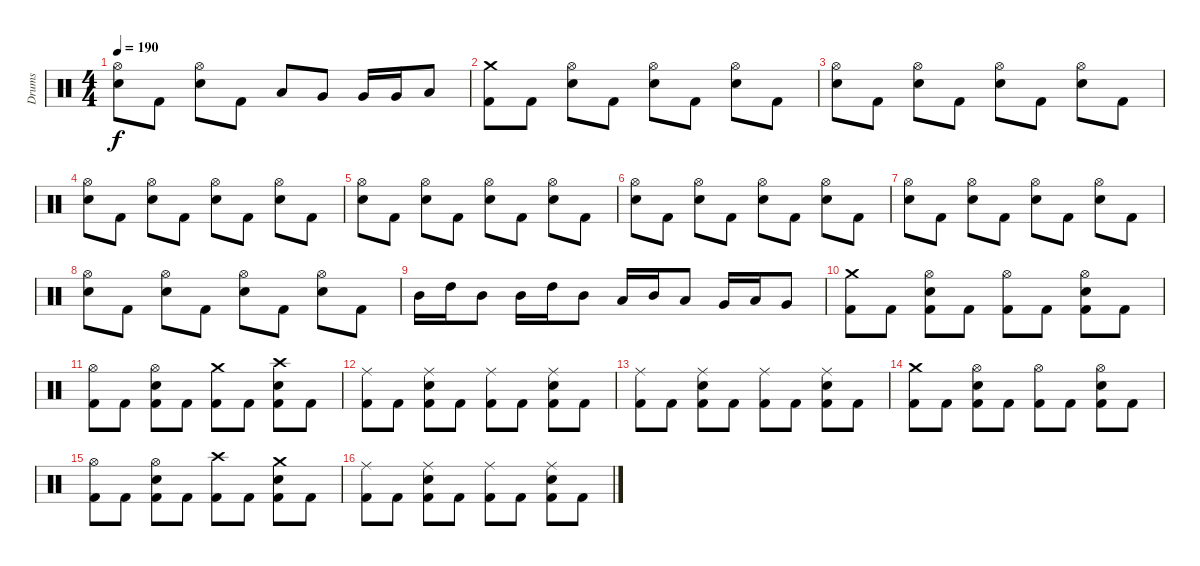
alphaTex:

\track ("Drums" "Drums") {instrument percussion}
\staff {score}
\articulation defaults
\ts (4 4)
\tempo 190
\clef neutral
\ks c
("Hi-Hat (open)" "Electric Snare (hit)").8{dy f} "Kick (hit) 2".8 ("Hi-Hat (open)" "Electric Snare (hit)").8 "Kick (hit) 2".8 "Low Tom (hit)".8 "Very Low Tom (hit)".8 "Very Low Tom (hit)".16 "Very Low Tom (hit)".16 "Low Floor Tom (hit)".8 |
("Crash medium (hit)" "Kick (hit) 2").8 "Kick (hit) 2".8 ("Hi-Hat (open)" "Electric Snare (hit)").8 "Kick (hit) 2".8 ("Hi-Hat (open)" "Electric Snare (hit)").8 "Kick (hit) 2".8 ("Hi-Hat (open)" "Electric Snare (hit)").8 "Kick (hit) 2".8 |
("Hi-Hat (open)" "Electric Snare (hit)").8 "Kick (hit) 2".8 ("Hi-Hat (open)" "Electric Snare (hit)").8 "Kick (hit) 2".8 ("Hi-Hat (open)" "Electric Snare (hit)").8 "Kick (hit) 2".8 ("Hi-Hat (open)" "Electric Snare (hit)").8 "Kick (hit) 2".8 |
("Hi-Hat (open)" "Electric Snare (hit)").8 "Kick (hit) 2".8 ("Hi-Hat (open)" "Electric Snare (hit)").8 "Kick (hit) 2".8 ("Hi-Hat (open)" "Electric Snare (hit)").8 "Kick (hit) 2".8 ("Hi-Hat (open)" "Electric Snare (hit)").8 "Kick (hit) 2".8 |
("Hi-Hat (open)" "Electric Snare (hit)").8 "Kick (hit) 2".8 ("Hi-Hat (open)" "Electric Snare (hit)").8 "Kick (hit) 2".8 ("Hi-Hat (open)" "Electric Snare (hit)").8 "Kick (hit) 2".8 ("Hi-Hat (open)" "Electric Snare (hit)").8 "Kick (hit) 2".8 |
("Hi-Hat (open)" "Electric Snare (hit)").8 "Kick (hit) 2".8 ("Hi-Hat (open)" "Electric Snare (hit)").8 "Kick (hit) 2".8 ("Hi-Hat (open)" "Electric Snare (hit)").8 "Kick (hit) 2".8 ("Hi-Hat (open)" "Electric Snare (hit)").8 "Kick (hit) 2".8 |
("Hi-Hat (open)" "Electric Snare (hit)").8 "Kick (hit) 2".8 ("Hi-Hat (open)" "Electric Snare (hit)").8 "Kick (hit) 2".8 ("Hi-Hat (open)" "Electric Snare (hit)").8 "Kick (hit) 2".8 ("Hi-Hat (open)" "Electric Snare (hit)").8 "Kick (hit) 2".8 |
("Hi-Hat (open)" "Electric Snare (hit)").8 "Kick (hit) 2".8 ("Hi-Hat (open)" "Electric Snare (hit)").8 "Kick (hit) 2".8 ("Hi-Hat (open)" "Electric Snare (hit)").8 "Kick (hit) 2".8 ("Hi-Hat (open)" "Electric Snare (hit)").8 "Kick (hit) 2".8 |
"Mid Tom (hit)".16 "High Tom (hit)".16 "Mid Tom (hit)".8 "Mid Tom (hit)".16 "High Tom (hit)".16 "Mid Tom (hit)".8 "Low Tom (hit)".16 "Mid Tom (hit)".16 "Low Tom (hit)".8 "Very Low Tom (hit)".16 "Low Tom (hit)".16 "Very Low Tom (hit)".8 |
("Crash medium (hit)" "Kick (hit) 2").8 "Kick (hit) 2".8 ("Hi-Hat (open)" "Electric Snare (hit)" "Kick (hit) 2").8 "Kick (hit) 2".8 ("Hi-Hat (open)" "Kick (hit) 2").8 "Kick (hit) 2".8 ("Hi-Hat (open)" "Electric Snare (hit)" "Kick (hit) 2").8 "Kick (hit) 2".8 |
("Hi-Hat (open)" "Kick (hit) 2").8 "Kick (hit) 2".8 ("Hi-Hat (open)" "Electric Snare (hit)" "Kick (hit) 2").8 "Kick (hit) 2".8 ("Crash medium (hit)" "Kick (hit) 2").8 "Kick (hit) 2".8 ("Crash high (hit)" "Electric Snare (hit)" "Kick (hit) 2").8 "Kick (hit) 2".8 |
("Ride (middle)" "Kick (hit) 2").8 "Kick (hit) 2".8 ("Ride (middle)" "Electric Snare (hit)" "Kick (hit) 2").8 "Kick (hit) 2".8 ("Ride (middle)" "Kick (hit) 2").8 "Kick (hit) 2".8 ("Ride (middle)" "Electric Snare (hit)" "Kick (hit) 2").8 "Kick (hit) 2".8 |
("Ride (middle)" "Kick (hit) 2").8 "Kick (hit) 2".8 ("Ride (middle)" "Electric Snare (hit)" "Kick (hit) 2").8 "Kick (hit) 2".8 ("Ride (middle)" "Kick (hit) 2").8 "Kick (hit) 2".8 ("Ride (middle)" "Electric Snare (hit)" "Kick (hit) 2").8 "Kick (hit) 2".8 |
("Crash medium (hit)" "Kick (hit) 2").8 "Kick (hit) 2".8 ("Hi-Hat (open)" "Electric Snare (hit)" "Kick (hit) 2").8 "Kick (hit) 2".8 ("Hi-Hat (open)" "Kick (hit) 2").8 "Kick (hit) 2".8 ("Hi-Hat (open)" "Electric Snare (hit)" "Kick (hit) 2").8 "Kick (hit) 2".8 |
("Hi-Hat (open)" "Kick (hit) 2").8 "Kick (hit) 2".8 ("Hi-Hat (open)" "Electric Snare (hit)" "Kick (hit) 2").8 "Kick (hit) 2".8 ("Crash high (hit)" "Kick (hit) 2").8 "Kick (hit) 2".8 ("Crash medium (hit)" "Electric Snare (hit)" "Kick (hit) 2").8 "Kick (hit) 2".8 |
("Ride (middle)" "Kick (hit) 2").8 "Kick (hit) 2".8 ("Ride (middle)" "Electric Snare (hit)" "Kick (hit) 2").8 "Kick (hit) 2".8 ("Ride (middle)" "Kick (hit) 2").8 "Kick (hit) 2".8 ("Ride (middle)" "Electric Snare (hit)" "Kick (hit) 2").8 "Kick (hit) 2".8
